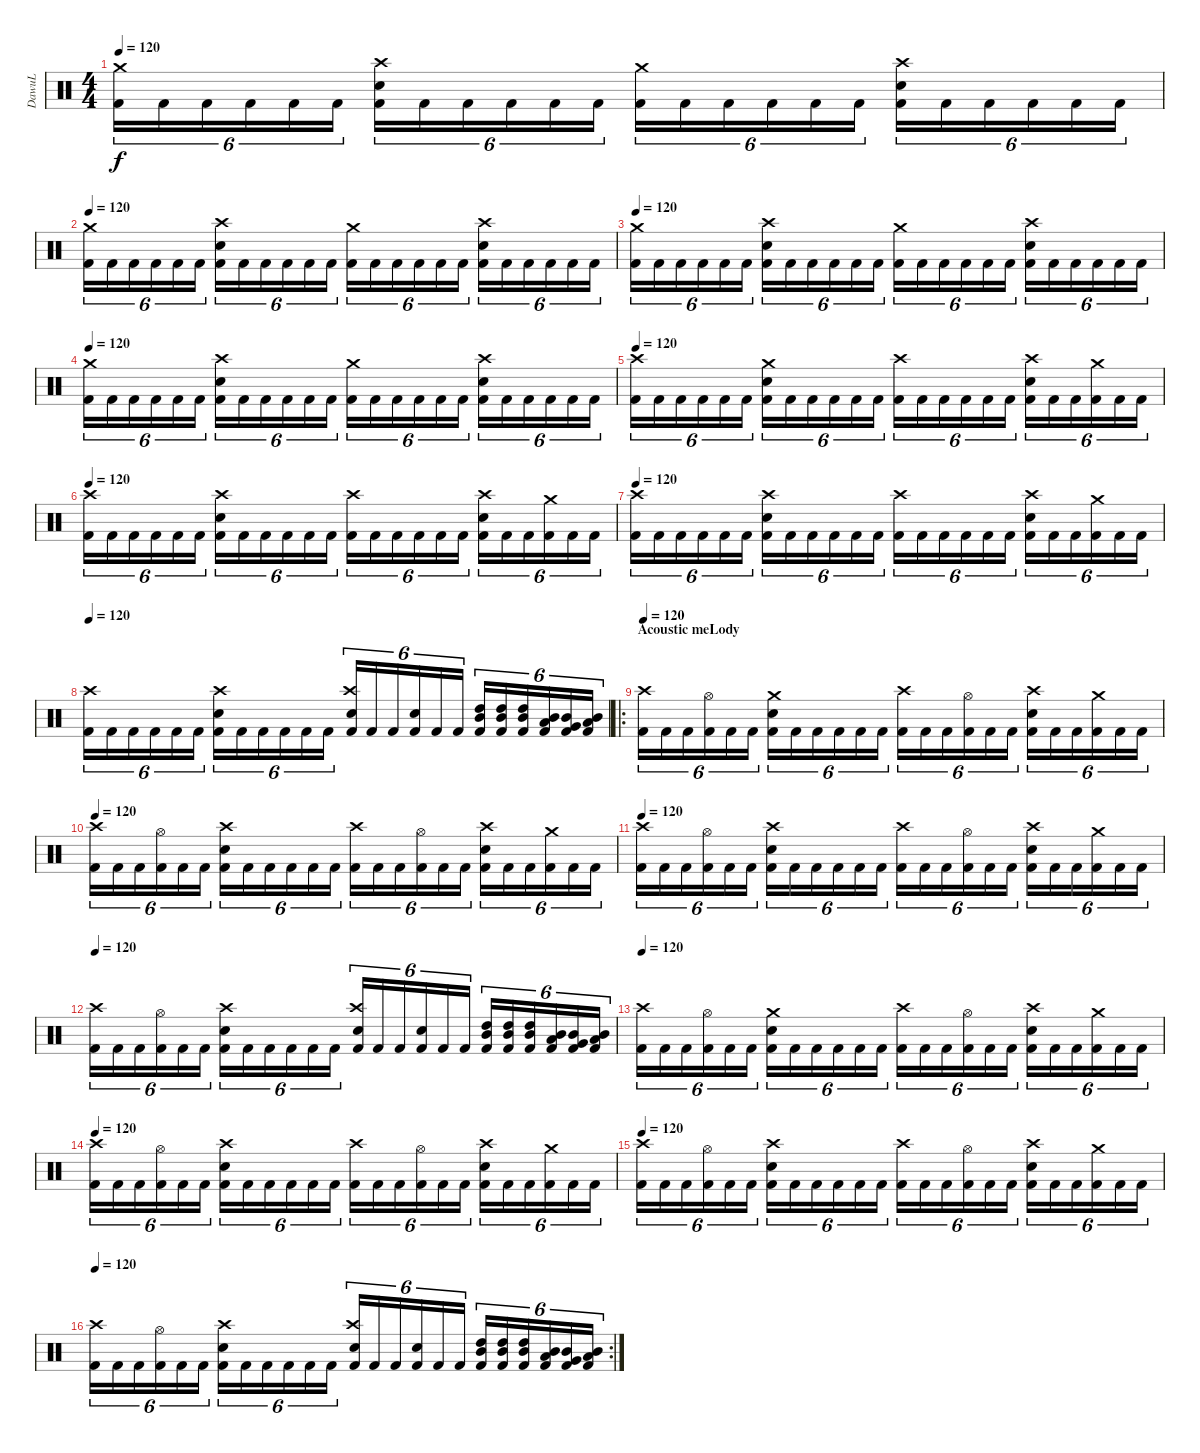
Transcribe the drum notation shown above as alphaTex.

\track ("DawuL" "DawuL") {instrument percussion}
\staff {score}
\articulation defaults
\ts (4 4)
\tempo 120
\clef neutral
\ks c
("Crash medium (hit)" "Kick (hit) 2").16{tu (6 4) dy f} "Kick (hit) 2".16{tu (6 4)} "Kick (hit) 2".16{tu (6 4)} "Kick (hit) 2".16{tu (6 4)} "Kick (hit) 2".16{tu (6 4)} "Kick (hit) 2".16{tu (6 4)} ("Electric Snare (hit)" "Crash high (hit)" "Kick (hit) 2").16{tu (6 4)} "Kick (hit) 2".16{tu (6 4)} "Kick (hit) 2".16{tu (6 4)} "Kick (hit) 2".16{tu (6 4)} "Kick (hit) 2".16{tu (6 4)} "Kick (hit) 2".16{tu (6 4)} ("Crash medium (hit)" "Kick (hit) 2").16{tu (6 4)} "Kick (hit) 2".16{tu (6 4)} "Kick (hit) 2".16{tu (6 4)} "Kick (hit) 2".16{tu (6 4)} "Kick (hit) 2".16{tu (6 4)} "Kick (hit) 2".16{tu (6 4)} ("Electric Snare (hit)" "Crash high (hit)" "Kick (hit) 2").16{tu (6 4)} "Kick (hit) 2".16{tu (6 4)} "Kick (hit) 2".16{tu (6 4)} "Kick (hit) 2".16{tu (6 4)} "Kick (hit) 2".16{tu (6 4)} "Kick (hit) 2".16{tu (6 4)} |
\tempo 120
("Crash medium (hit)" "Kick (hit) 2").16{tu (6 4)} "Kick (hit) 2".16{tu (6 4)} "Kick (hit) 2".16{tu (6 4)} "Kick (hit) 2".16{tu (6 4)} "Kick (hit) 2".16{tu (6 4)} "Kick (hit) 2".16{tu (6 4)} ("Electric Snare (hit)" "Crash high (hit)" "Kick (hit) 2").16{tu (6 4)} "Kick (hit) 2".16{tu (6 4)} "Kick (hit) 2".16{tu (6 4)} "Kick (hit) 2".16{tu (6 4)} "Kick (hit) 2".16{tu (6 4)} "Kick (hit) 2".16{tu (6 4)} ("Crash medium (hit)" "Kick (hit) 2").16{tu (6 4)} "Kick (hit) 2".16{tu (6 4)} "Kick (hit) 2".16{tu (6 4)} "Kick (hit) 2".16{tu (6 4)} "Kick (hit) 2".16{tu (6 4)} "Kick (hit) 2".16{tu (6 4)} ("Electric Snare (hit)" "Crash high (hit)" "Kick (hit) 2").16{tu (6 4)} "Kick (hit) 2".16{tu (6 4)} "Kick (hit) 2".16{tu (6 4)} "Kick (hit) 2".16{tu (6 4)} "Kick (hit) 2".16{tu (6 4)} "Kick (hit) 2".16{tu (6 4)} |
\tempo 120
("Crash medium (hit)" "Kick (hit) 2").16{tu (6 4)} "Kick (hit) 2".16{tu (6 4)} "Kick (hit) 2".16{tu (6 4)} "Kick (hit) 2".16{tu (6 4)} "Kick (hit) 2".16{tu (6 4)} "Kick (hit) 2".16{tu (6 4)} ("Electric Snare (hit)" "Crash high (hit)" "Kick (hit) 2").16{tu (6 4)} "Kick (hit) 2".16{tu (6 4)} "Kick (hit) 2".16{tu (6 4)} "Kick (hit) 2".16{tu (6 4)} "Kick (hit) 2".16{tu (6 4)} "Kick (hit) 2".16{tu (6 4)} ("Crash medium (hit)" "Kick (hit) 2").16{tu (6 4)} "Kick (hit) 2".16{tu (6 4)} "Kick (hit) 2".16{tu (6 4)} "Kick (hit) 2".16{tu (6 4)} "Kick (hit) 2".16{tu (6 4)} "Kick (hit) 2".16{tu (6 4)} ("Electric Snare (hit)" "Crash high (hit)" "Kick (hit) 2").16{tu (6 4)} "Kick (hit) 2".16{tu (6 4)} "Kick (hit) 2".16{tu (6 4)} "Kick (hit) 2".16{tu (6 4)} "Kick (hit) 2".16{tu (6 4)} "Kick (hit) 2".16{tu (6 4)} |
\tempo 120
("Crash medium (hit)" "Kick (hit) 2").16{tu (6 4)} "Kick (hit) 2".16{tu (6 4)} "Kick (hit) 2".16{tu (6 4)} "Kick (hit) 2".16{tu (6 4)} "Kick (hit) 2".16{tu (6 4)} "Kick (hit) 2".16{tu (6 4)} ("Electric Snare (hit)" "Crash high (hit)" "Kick (hit) 2").16{tu (6 4)} "Kick (hit) 2".16{tu (6 4)} "Kick (hit) 2".16{tu (6 4)} "Kick (hit) 2".16{tu (6 4)} "Kick (hit) 2".16{tu (6 4)} "Kick (hit) 2".16{tu (6 4)} ("Crash medium (hit)" "Kick (hit) 2").16{tu (6 4)} "Kick (hit) 2".16{tu (6 4)} "Kick (hit) 2".16{tu (6 4)} "Kick (hit) 2".16{tu (6 4)} "Kick (hit) 2".16{tu (6 4)} "Kick (hit) 2".16{tu (6 4)} ("Electric Snare (hit)" "Crash high (hit)" "Kick (hit) 2").16{tu (6 4)} "Kick (hit) 2".16{tu (6 4)} "Kick (hit) 2".16{tu (6 4)} "Kick (hit) 2".16{tu (6 4)} "Kick (hit) 2".16{tu (6 4)} "Kick (hit) 2".16{tu (6 4)} |
\tempo 120
("Crash high (hit)" "Kick (hit) 2").16{tu (6 4)} "Kick (hit) 2".16{tu (6 4)} "Kick (hit) 2".16{tu (6 4)} "Kick (hit) 2".16{tu (6 4)} "Kick (hit) 2".16{tu (6 4)} "Kick (hit) 2".16{tu (6 4)} ("Electric Snare (hit)" "Crash medium (hit)" "Kick (hit) 2").16{tu (6 4)} "Kick (hit) 2".16{tu (6 4)} "Kick (hit) 2".16{tu (6 4)} "Kick (hit) 2".16{tu (6 4)} "Kick (hit) 2".16{tu (6 4)} "Kick (hit) 2".16{tu (6 4)} ("Crash high (hit)" "Kick (hit) 2").16{tu (6 4)} "Kick (hit) 2".16{tu (6 4)} "Kick (hit) 2".16{tu (6 4)} "Kick (hit) 2".16{tu (6 4)} "Kick (hit) 2".16{tu (6 4)} "Kick (hit) 2".16{tu (6 4)} ("Electric Snare (hit)" "Crash high (hit)" "Kick (hit) 2").16{tu (6 4)} "Kick (hit) 2".16{tu (6 4)} "Kick (hit) 2".16{tu (6 4)} ("Crash medium (hit)" "Kick (hit) 2").16{tu (6 4)} "Kick (hit) 2".16{tu (6 4)} "Kick (hit) 2".16{tu (6 4)} |
\tempo 120
("Crash high (hit)" "Kick (hit) 2").16{tu (6 4)} "Kick (hit) 2".16{tu (6 4)} "Kick (hit) 2".16{tu (6 4)} "Kick (hit) 2".16{tu (6 4)} "Kick (hit) 2".16{tu (6 4)} "Kick (hit) 2".16{tu (6 4)} ("Electric Snare (hit)" "Crash high (hit)" "Kick (hit) 2").16{tu (6 4)} "Kick (hit) 2".16{tu (6 4)} "Kick (hit) 2".16{tu (6 4)} "Kick (hit) 2".16{tu (6 4)} "Kick (hit) 2".16{tu (6 4)} "Kick (hit) 2".16{tu (6 4)} ("Crash high (hit)" "Kick (hit) 2").16{tu (6 4)} "Kick (hit) 2".16{tu (6 4)} "Kick (hit) 2".16{tu (6 4)} "Kick (hit) 2".16{tu (6 4)} "Kick (hit) 2".16{tu (6 4)} "Kick (hit) 2".16{tu (6 4)} ("Electric Snare (hit)" "Crash high (hit)" "Kick (hit) 2").16{tu (6 4)} "Kick (hit) 2".16{tu (6 4)} "Kick (hit) 2".16{tu (6 4)} ("Crash medium (hit)" "Kick (hit) 2").16{tu (6 4)} "Kick (hit) 2".16{tu (6 4)} "Kick (hit) 2".16{tu (6 4)} |
\tempo 120
("Crash high (hit)" "Kick (hit) 2").16{tu (6 4)} "Kick (hit) 2".16{tu (6 4)} "Kick (hit) 2".16{tu (6 4)} "Kick (hit) 2".16{tu (6 4)} "Kick (hit) 2".16{tu (6 4)} "Kick (hit) 2".16{tu (6 4)} ("Electric Snare (hit)" "Crash high (hit)" "Kick (hit) 2").16{tu (6 4)} "Kick (hit) 2".16{tu (6 4)} "Kick (hit) 2".16{tu (6 4)} "Kick (hit) 2".16{tu (6 4)} "Kick (hit) 2".16{tu (6 4)} "Kick (hit) 2".16{tu (6 4)} ("Crash high (hit)" "Kick (hit) 2").16{tu (6 4)} "Kick (hit) 2".16{tu (6 4)} "Kick (hit) 2".16{tu (6 4)} "Kick (hit) 2".16{tu (6 4)} "Kick (hit) 2".16{tu (6 4)} "Kick (hit) 2".16{tu (6 4)} ("Electric Snare (hit)" "Crash high (hit)" "Kick (hit) 2").16{tu (6 4)} "Kick (hit) 2".16{tu (6 4)} "Kick (hit) 2".16{tu (6 4)} ("Crash medium (hit)" "Kick (hit) 2").16{tu (6 4)} "Kick (hit) 2".16{tu (6 4)} "Kick (hit) 2".16{tu (6 4)} |
\tempo 120
("Crash high (hit)" "Kick (hit) 2").16{tu (6 4)} "Kick (hit) 2".16{tu (6 4)} "Kick (hit) 2".16{tu (6 4)} "Kick (hit) 2".16{tu (6 4)} "Kick (hit) 2".16{tu (6 4)} "Kick (hit) 2".16{tu (6 4)} ("Electric Snare (hit)" "Crash high (hit)" "Kick (hit) 2").16{tu (6 4)} "Kick (hit) 2".16{tu (6 4)} "Kick (hit) 2".16{tu (6 4)} "Kick (hit) 2".16{tu (6 4)} "Kick (hit) 2".16{tu (6 4)} "Kick (hit) 2".16{tu (6 4)} ("Crash high (hit)" "Snare (hit) 2" "Kick (hit) 2").16{tu (6 4)} "Kick (hit) 2".16{tu (6 4)} "Kick (hit) 2".16{tu (6 4)} ("Electric Snare (hit)" "Kick (hit) 2").16{tu (6 4)} "Kick (hit) 2".16{tu (6 4)} "Kick (hit) 2".16{tu (6 4)} ("Mid Tom (hit)" "High Tom (hit)" "Kick (hit) 2").16{tu (6 4)} ("Mid Tom (hit)" "High Tom (hit)" "Kick (hit) 2").16{tu (6 4)} ("Mid Tom (hit)" "High Tom (hit)" "Kick (hit) 2").16{tu (6 4)} ("Low Tom (hit)" "Mid Tom (hit)" "Kick (hit) 2").16{tu (6 4)} ("Very Low Tom (hit)" "Mid Tom (hit)" "Kick (hit) 2").16{tu (6 4)} ("Low Floor Tom (hit)" "Mid Tom (hit)" "Kick (hit) 2").16{tu (6 4)} |
\ro
\section ("" "Acoustic meLody")
\tempo 120
("Crash high (hit)" "Kick (hit) 2").16{tu (6 4)} "Kick (hit) 2".16{tu (6 4)} "Kick (hit) 2".16{tu (6 4)} ("Hi-Hat (open)" "Kick (hit) 2").16{tu (6 4)} "Kick (hit) 2".16{tu (6 4)} "Kick (hit) 2".16{tu (6 4)} ("Electric Snare (hit)" "Crash medium (hit)" "Kick (hit) 2").16{tu (6 4)} "Kick (hit) 2".16{tu (6 4)} "Kick (hit) 2".16{tu (6 4)} "Kick (hit) 2".16{tu (6 4)} "Kick (hit) 2".16{tu (6 4)} "Kick (hit) 2".16{tu (6 4)} ("Crash high (hit)" "Kick (hit) 2").16{tu (6 4)} "Kick (hit) 2".16{tu (6 4)} "Kick (hit) 2".16{tu (6 4)} ("Hi-Hat (open)" "Kick (hit) 2").16{tu (6 4)} "Kick (hit) 2".16{tu (6 4)} "Kick (hit) 2".16{tu (6 4)} ("Electric Snare (hit)" "Crash high (hit)" "Kick (hit) 2").16{tu (6 4)} "Kick (hit) 2".16{tu (6 4)} "Kick (hit) 2".16{tu (6 4)} ("Crash medium (hit)" "Kick (hit) 2").16{tu (6 4)} "Kick (hit) 2".16{tu (6 4)} "Kick (hit) 2".16{tu (6 4)} |
\tempo 120
("Crash high (hit)" "Kick (hit) 2").16{tu (6 4)} "Kick (hit) 2".16{tu (6 4)} "Kick (hit) 2".16{tu (6 4)} ("Hi-Hat (open)" "Kick (hit) 2").16{tu (6 4)} "Kick (hit) 2".16{tu (6 4)} "Kick (hit) 2".16{tu (6 4)} ("Electric Snare (hit)" "Crash high (hit)" "Kick (hit) 2").16{tu (6 4)} "Kick (hit) 2".16{tu (6 4)} "Kick (hit) 2".16{tu (6 4)} "Kick (hit) 2".16{tu (6 4)} "Kick (hit) 2".16{tu (6 4)} "Kick (hit) 2".16{tu (6 4)} ("Crash high (hit)" "Kick (hit) 2").16{tu (6 4)} "Kick (hit) 2".16{tu (6 4)} "Kick (hit) 2".16{tu (6 4)} ("Hi-Hat (open)" "Kick (hit) 2").16{tu (6 4)} "Kick (hit) 2".16{tu (6 4)} "Kick (hit) 2".16{tu (6 4)} ("Electric Snare (hit)" "Crash high (hit)" "Kick (hit) 2").16{tu (6 4)} "Kick (hit) 2".16{tu (6 4)} "Kick (hit) 2".16{tu (6 4)} ("Crash medium (hit)" "Kick (hit) 2").16{tu (6 4)} "Kick (hit) 2".16{tu (6 4)} "Kick (hit) 2".16{tu (6 4)} |
\tempo 120
("Crash high (hit)" "Kick (hit) 2").16{tu (6 4)} "Kick (hit) 2".16{tu (6 4)} "Kick (hit) 2".16{tu (6 4)} ("Hi-Hat (open)" "Kick (hit) 2").16{tu (6 4)} "Kick (hit) 2".16{tu (6 4)} "Kick (hit) 2".16{tu (6 4)} ("Electric Snare (hit)" "Crash high (hit)" "Kick (hit) 2").16{tu (6 4)} "Kick (hit) 2".16{tu (6 4)} "Kick (hit) 2".16{tu (6 4)} "Kick (hit) 2".16{tu (6 4)} "Kick (hit) 2".16{tu (6 4)} "Kick (hit) 2".16{tu (6 4)} ("Crash high (hit)" "Kick (hit) 2").16{tu (6 4)} "Kick (hit) 2".16{tu (6 4)} "Kick (hit) 2".16{tu (6 4)} ("Hi-Hat (open)" "Kick (hit) 2").16{tu (6 4)} "Kick (hit) 2".16{tu (6 4)} "Kick (hit) 2".16{tu (6 4)} ("Electric Snare (hit)" "Crash high (hit)" "Kick (hit) 2").16{tu (6 4)} "Kick (hit) 2".16{tu (6 4)} "Kick (hit) 2".16{tu (6 4)} ("Crash medium (hit)" "Kick (hit) 2").16{tu (6 4)} "Kick (hit) 2".16{tu (6 4)} "Kick (hit) 2".16{tu (6 4)} |
\tempo 120
("Crash high (hit)" "Kick (hit) 2").16{tu (6 4)} "Kick (hit) 2".16{tu (6 4)} "Kick (hit) 2".16{tu (6 4)} ("Hi-Hat (open)" "Kick (hit) 2").16{tu (6 4)} "Kick (hit) 2".16{tu (6 4)} "Kick (hit) 2".16{tu (6 4)} ("Electric Snare (hit)" "Crash high (hit)" "Kick (hit) 2").16{tu (6 4)} "Kick (hit) 2".16{tu (6 4)} "Kick (hit) 2".16{tu (6 4)} "Kick (hit) 2".16{tu (6 4)} "Kick (hit) 2".16{tu (6 4)} "Kick (hit) 2".16{tu (6 4)} ("Crash high (hit)" "Snare (hit) 2" "Kick (hit) 2").16{tu (6 4)} "Kick (hit) 2".16{tu (6 4)} "Kick (hit) 2".16{tu (6 4)} ("Electric Snare (hit)" "Kick (hit) 2").16{tu (6 4)} "Kick (hit) 2".16{tu (6 4)} "Kick (hit) 2".16{tu (6 4)} ("Mid Tom (hit)" "High Tom (hit)" "Kick (hit) 2").16{tu (6 4)} ("Mid Tom (hit)" "High Tom (hit)" "Kick (hit) 2").16{tu (6 4)} ("Mid Tom (hit)" "High Tom (hit)" "Kick (hit) 2").16{tu (6 4)} ("Low Tom (hit)" "Mid Tom (hit)" "Kick (hit) 2").16{tu (6 4)} ("Very Low Tom (hit)" "Mid Tom (hit)" "Kick (hit) 2").16{tu (6 4)} ("Low Floor Tom (hit)" "Mid Tom (hit)" "Kick (hit) 2").16{tu (6 4)} |
\tempo 120
("Crash high (hit)" "Kick (hit) 2").16{tu (6 4)} "Kick (hit) 2".16{tu (6 4)} "Kick (hit) 2".16{tu (6 4)} ("Hi-Hat (open)" "Kick (hit) 2").16{tu (6 4)} "Kick (hit) 2".16{tu (6 4)} "Kick (hit) 2".16{tu (6 4)} ("Electric Snare (hit)" "Crash medium (hit)" "Kick (hit) 2").16{tu (6 4)} "Kick (hit) 2".16{tu (6 4)} "Kick (hit) 2".16{tu (6 4)} "Kick (hit) 2".16{tu (6 4)} "Kick (hit) 2".16{tu (6 4)} "Kick (hit) 2".16{tu (6 4)} ("Crash high (hit)" "Kick (hit) 2").16{tu (6 4)} "Kick (hit) 2".16{tu (6 4)} "Kick (hit) 2".16{tu (6 4)} ("Hi-Hat (open)" "Kick (hit) 2").16{tu (6 4)} "Kick (hit) 2".16{tu (6 4)} "Kick (hit) 2".16{tu (6 4)} ("Electric Snare (hit)" "Crash high (hit)" "Kick (hit) 2").16{tu (6 4)} "Kick (hit) 2".16{tu (6 4)} "Kick (hit) 2".16{tu (6 4)} ("Crash medium (hit)" "Kick (hit) 2").16{tu (6 4)} "Kick (hit) 2".16{tu (6 4)} "Kick (hit) 2".16{tu (6 4)} |
\tempo 120
("Crash high (hit)" "Kick (hit) 2").16{tu (6 4)} "Kick (hit) 2".16{tu (6 4)} "Kick (hit) 2".16{tu (6 4)} ("Hi-Hat (open)" "Kick (hit) 2").16{tu (6 4)} "Kick (hit) 2".16{tu (6 4)} "Kick (hit) 2".16{tu (6 4)} ("Electric Snare (hit)" "Crash high (hit)" "Kick (hit) 2").16{tu (6 4)} "Kick (hit) 2".16{tu (6 4)} "Kick (hit) 2".16{tu (6 4)} "Kick (hit) 2".16{tu (6 4)} "Kick (hit) 2".16{tu (6 4)} "Kick (hit) 2".16{tu (6 4)} ("Crash high (hit)" "Kick (hit) 2").16{tu (6 4)} "Kick (hit) 2".16{tu (6 4)} "Kick (hit) 2".16{tu (6 4)} ("Hi-Hat (open)" "Kick (hit) 2").16{tu (6 4)} "Kick (hit) 2".16{tu (6 4)} "Kick (hit) 2".16{tu (6 4)} ("Electric Snare (hit)" "Crash high (hit)" "Kick (hit) 2").16{tu (6 4)} "Kick (hit) 2".16{tu (6 4)} "Kick (hit) 2".16{tu (6 4)} ("Crash medium (hit)" "Kick (hit) 2").16{tu (6 4)} "Kick (hit) 2".16{tu (6 4)} "Kick (hit) 2".16{tu (6 4)} |
\tempo 120
("Crash high (hit)" "Kick (hit) 2").16{tu (6 4)} "Kick (hit) 2".16{tu (6 4)} "Kick (hit) 2".16{tu (6 4)} ("Hi-Hat (open)" "Kick (hit) 2").16{tu (6 4)} "Kick (hit) 2".16{tu (6 4)} "Kick (hit) 2".16{tu (6 4)} ("Electric Snare (hit)" "Crash high (hit)" "Kick (hit) 2").16{tu (6 4)} "Kick (hit) 2".16{tu (6 4)} "Kick (hit) 2".16{tu (6 4)} "Kick (hit) 2".16{tu (6 4)} "Kick (hit) 2".16{tu (6 4)} "Kick (hit) 2".16{tu (6 4)} ("Crash high (hit)" "Kick (hit) 2").16{tu (6 4)} "Kick (hit) 2".16{tu (6 4)} "Kick (hit) 2".16{tu (6 4)} ("Hi-Hat (open)" "Kick (hit) 2").16{tu (6 4)} "Kick (hit) 2".16{tu (6 4)} "Kick (hit) 2".16{tu (6 4)} ("Electric Snare (hit)" "Crash high (hit)" "Kick (hit) 2").16{tu (6 4)} "Kick (hit) 2".16{tu (6 4)} "Kick (hit) 2".16{tu (6 4)} ("Crash medium (hit)" "Kick (hit) 2").16{tu (6 4)} "Kick (hit) 2".16{tu (6 4)} "Kick (hit) 2".16{tu (6 4)} |
\rc 2
\tempo 120
("Crash high (hit)" "Kick (hit) 2").16{tu (6 4)} "Kick (hit) 2".16{tu (6 4)} "Kick (hit) 2".16{tu (6 4)} ("Hi-Hat (open)" "Kick (hit) 2").16{tu (6 4)} "Kick (hit) 2".16{tu (6 4)} "Kick (hit) 2".16{tu (6 4)} ("Electric Snare (hit)" "Crash high (hit)" "Kick (hit) 2").16{tu (6 4)} "Kick (hit) 2".16{tu (6 4)} "Kick (hit) 2".16{tu (6 4)} "Kick (hit) 2".16{tu (6 4)} "Kick (hit) 2".16{tu (6 4)} "Kick (hit) 2".16{tu (6 4)} ("Crash high (hit)" "Snare (hit) 2" "Kick (hit) 2").16{tu (6 4)} "Kick (hit) 2".16{tu (6 4)} "Kick (hit) 2".16{tu (6 4)} ("Electric Snare (hit)" "Kick (hit) 2").16{tu (6 4)} "Kick (hit) 2".16{tu (6 4)} "Kick (hit) 2".16{tu (6 4)} ("Mid Tom (hit)" "High Tom (hit)" "Kick (hit) 2").16{tu (6 4)} ("Mid Tom (hit)" "High Tom (hit)" "Kick (hit) 2").16{tu (6 4)} ("Mid Tom (hit)" "High Tom (hit)" "Kick (hit) 2").16{tu (6 4)} ("Low Tom (hit)" "Mid Tom (hit)" "Kick (hit) 2").16{tu (6 4)} ("Very Low Tom (hit)" "Mid Tom (hit)" "Kick (hit) 2").16{tu (6 4)} ("Low Floor Tom (hit)" "Mid Tom (hit)" "Kick (hit) 2").16{tu (6 4)}
